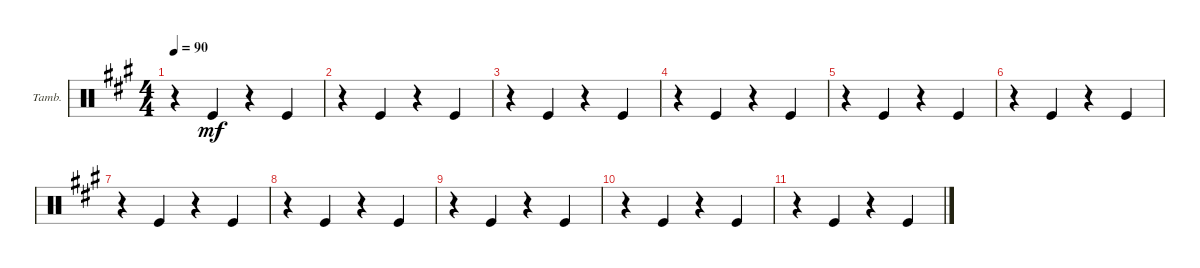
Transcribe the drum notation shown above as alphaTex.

\bracketExtendMode groupsimilarinstruments
\firstSystemTrackNameOrientation horizontal
\otherSystemsTrackNameOrientation horizontal
\track ("Tambourine" "Tamb.") {instrument percussion}
\staff {score}
\articulation defaults
\ts (4 4)
\tempo 90
\clef neutral
\scale
0.333333
\ks f#minor
r.4{dy mf} "Kick (hit)".4 r.4 "Kick (hit)".4 |
\scale
0.333333 r.4 "Kick (hit)".4 r.4 "Kick (hit)".4 |
r.4 "Kick (hit)".4 r.4 "Kick (hit)".4 |
r.4 "Kick (hit)".4 r.4 "Kick (hit)".4 |
r.4 "Kick (hit)".4 r.4 "Kick (hit)".4 |
r.4 "Kick (hit)".4 r.4 "Kick (hit)".4 |
r.4 "Kick (hit)".4 r.4 "Kick (hit)".4 |
r.4 "Kick (hit)".4 r.4 "Kick (hit)".4 |
r.4 "Kick (hit)".4 r.4 "Kick (hit)".4 |
r.4 "Kick (hit)".4 r.4 "Kick (hit)".4 |
r.4 "Kick (hit)".4 r.4 "Kick (hit)".4
